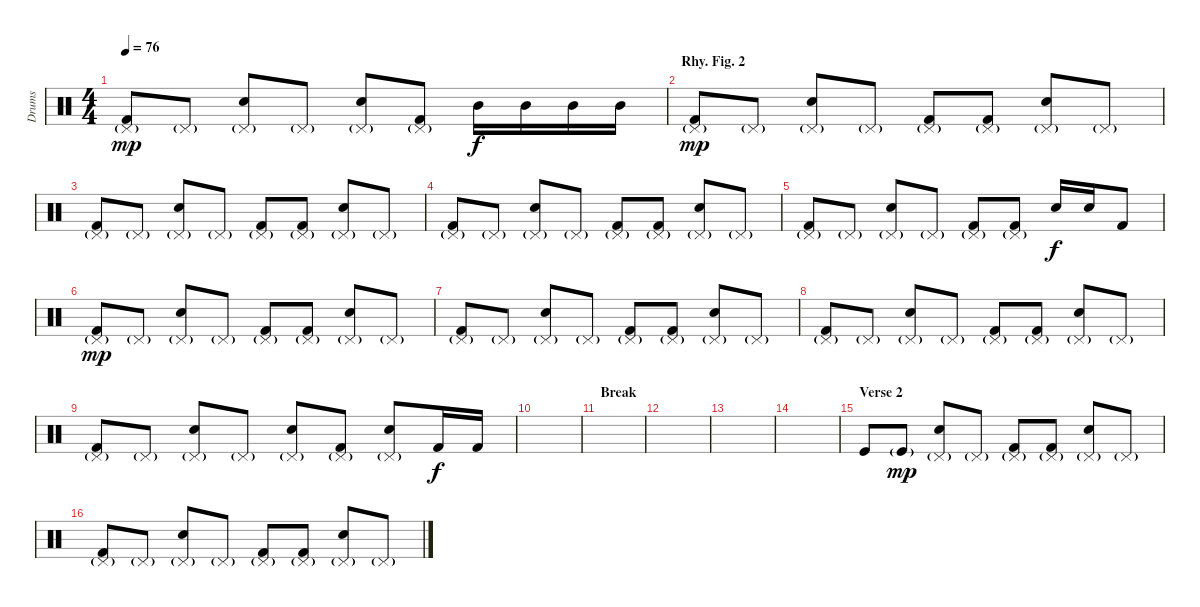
\track ("Drums" "Drums") {instrument percussion}
\staff {score}
\articulation defaults
\ts (4 4)
\tempo 76
\clef neutral
\ks c
("Pedal Hi-Hat (hit)"{g} "Kick (hit) 2").8{dy mp} "Pedal Hi-Hat (hit)"{g}.8 ("Pedal Hi-Hat (hit)"{g} "Snare (hit) 2").8 "Pedal Hi-Hat (hit)"{g}.8 ("Pedal Hi-Hat (hit)"{g} "Snare (hit) 2").8 ("Pedal Hi-Hat (hit)"{g} "Kick (hit) 2").8 "Mid Tom (hit)".16{dy f} "Mid Tom (hit)".16 "Mid Tom (hit)".16 "Mid Tom (hit)".16 |
\section ("" "Rhy. Fig. 2")
("Pedal Hi-Hat (hit)"{g} "Kick (hit) 2").8{dy mp} "Pedal Hi-Hat (hit)"{g}.8 ("Pedal Hi-Hat (hit)"{g} "Snare (hit) 2").8 "Pedal Hi-Hat (hit)"{g}.8 ("Pedal Hi-Hat (hit)"{g} "Kick (hit) 2").8 ("Pedal Hi-Hat (hit)"{g} "Kick (hit) 2").8 ("Pedal Hi-Hat (hit)"{g} "Snare (hit) 2").8 "Pedal Hi-Hat (hit)"{g}.8 |
("Pedal Hi-Hat (hit)"{g} "Kick (hit) 2").8 "Pedal Hi-Hat (hit)"{g}.8 ("Pedal Hi-Hat (hit)"{g} "Snare (hit) 2").8 "Pedal Hi-Hat (hit)"{g}.8 ("Pedal Hi-Hat (hit)"{g} "Kick (hit) 2").8 ("Pedal Hi-Hat (hit)"{g} "Kick (hit) 2").8 ("Pedal Hi-Hat (hit)"{g} "Snare (hit) 2").8 "Pedal Hi-Hat (hit)"{g}.8 |
("Pedal Hi-Hat (hit)"{g} "Kick (hit) 2").8 "Pedal Hi-Hat (hit)"{g}.8 ("Pedal Hi-Hat (hit)"{g} "Snare (hit) 2").8 "Pedal Hi-Hat (hit)"{g}.8 ("Pedal Hi-Hat (hit)"{g} "Kick (hit) 2").8 ("Pedal Hi-Hat (hit)"{g} "Kick (hit) 2").8 ("Pedal Hi-Hat (hit)"{g} "Snare (hit) 2").8 "Pedal Hi-Hat (hit)"{g}.8 |
("Pedal Hi-Hat (hit)"{g} "Kick (hit) 2").8 "Pedal Hi-Hat (hit)"{g}.8 ("Pedal Hi-Hat (hit)"{g} "Snare (hit) 2").8 "Pedal Hi-Hat (hit)"{g}.8 ("Pedal Hi-Hat (hit)"{g} "Kick (hit) 2").8 ("Pedal Hi-Hat (hit)"{g} "Kick (hit) 2").8 "Snare (hit) 2".16{dy f} "Snare (hit) 2".16 "Kick (hit) 2".8 |
("Pedal Hi-Hat (hit)"{g} "Kick (hit) 2").8{dy mp} "Pedal Hi-Hat (hit)"{g}.8 ("Pedal Hi-Hat (hit)"{g} "Snare (hit) 2").8 "Pedal Hi-Hat (hit)"{g}.8 ("Pedal Hi-Hat (hit)"{g} "Kick (hit) 2").8 ("Pedal Hi-Hat (hit)"{g} "Kick (hit) 2").8 ("Pedal Hi-Hat (hit)"{g} "Snare (hit) 2").8 "Pedal Hi-Hat (hit)"{g}.8 |
("Pedal Hi-Hat (hit)"{g} "Kick (hit) 2").8 "Pedal Hi-Hat (hit)"{g}.8 ("Pedal Hi-Hat (hit)"{g} "Snare (hit) 2").8 "Pedal Hi-Hat (hit)"{g}.8 ("Pedal Hi-Hat (hit)"{g} "Kick (hit) 2").8 ("Pedal Hi-Hat (hit)"{g} "Kick (hit) 2").8 ("Pedal Hi-Hat (hit)"{g} "Snare (hit) 2").8 "Pedal Hi-Hat (hit)"{g}.8 |
("Pedal Hi-Hat (hit)"{g} "Kick (hit) 2").8 "Pedal Hi-Hat (hit)"{g}.8 ("Pedal Hi-Hat (hit)"{g} "Snare (hit) 2").8 "Pedal Hi-Hat (hit)"{g}.8 ("Pedal Hi-Hat (hit)"{g} "Kick (hit) 2").8 ("Pedal Hi-Hat (hit)"{g} "Kick (hit) 2").8 ("Pedal Hi-Hat (hit)"{g} "Snare (hit) 2").8 "Pedal Hi-Hat (hit)"{g}.8 |
("Pedal Hi-Hat (hit)"{g} "Kick (hit) 2").8 "Pedal Hi-Hat (hit)"{g}.8 ("Pedal Hi-Hat (hit)"{g} "Snare (hit) 2").8 "Pedal Hi-Hat (hit)"{g}.8 ("Pedal Hi-Hat (hit)"{g} "Snare (hit) 2").8 ("Pedal Hi-Hat (hit)"{g} "Kick (hit) 2").8 ("Pedal Hi-Hat (hit)"{g} "Snare (hit) 2").8 "Kick (hit) 2".16{dy f} "Kick (hit) 2".16 |
|
\section ("" "Break")
|
|
|
|
\section ("" "Verse 2")
"Kick (hit)".8 "Kick (hit)"{g}.8{dy mp} ("Pedal Hi-Hat (hit)"{g} "Snare (hit) 2").8 "Pedal Hi-Hat (hit)"{g}.8 ("Pedal Hi-Hat (hit)"{g} "Kick (hit) 2").8 ("Pedal Hi-Hat (hit)"{g} "Kick (hit) 2").8 ("Pedal Hi-Hat (hit)"{g} "Snare (hit) 2").8 "Pedal Hi-Hat (hit)"{g}.8 |
("Pedal Hi-Hat (hit)"{g} "Kick (hit) 2").8 "Pedal Hi-Hat (hit)"{g}.8 ("Pedal Hi-Hat (hit)"{g} "Snare (hit) 2").8 "Pedal Hi-Hat (hit)"{g}.8 ("Pedal Hi-Hat (hit)"{g} "Kick (hit) 2").8 ("Pedal Hi-Hat (hit)"{g} "Kick (hit) 2").8 ("Pedal Hi-Hat (hit)"{g} "Snare (hit) 2").8 "Pedal Hi-Hat (hit)"{g}.8
